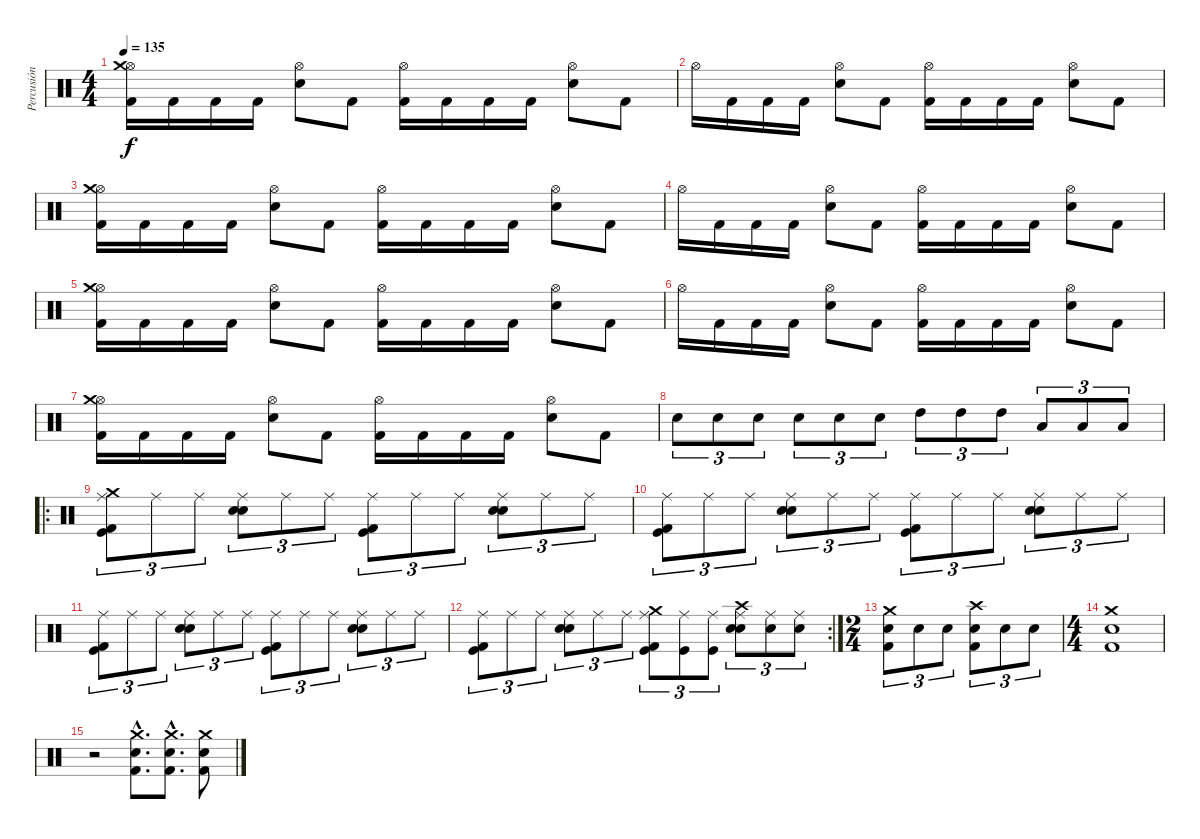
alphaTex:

\track ("Percusión" "Percusión") {instrument percussion}
\staff {score}
\articulation defaults
\ts (4 4)
\tempo 135
\clef neutral
\ks c
("Hi-Hat (open)" "Crash medium (hit)" "Kick (hit) 2").16{dy f} "Kick (hit) 2".16 "Kick (hit) 2".16 "Kick (hit) 2".16 ("Hi-Hat (open)" "Electric Snare (hit)").8 "Kick (hit) 2".8 ("Hi-Hat (open)" "Kick (hit) 2").16 "Kick (hit) 2".16 "Kick (hit) 2".16 "Kick (hit) 2".16 ("Hi-Hat (open)" "Electric Snare (hit)").8 "Kick (hit) 2".8 |
"Hi-Hat (open)".16 "Kick (hit) 2".16 "Kick (hit) 2".16 "Kick (hit) 2".16 ("Hi-Hat (open)" "Electric Snare (hit)").8 "Kick (hit) 2".8 ("Hi-Hat (open)" "Kick (hit) 2").16 "Kick (hit) 2".16 "Kick (hit) 2".16 "Kick (hit) 2".16 ("Hi-Hat (open)" "Electric Snare (hit)").8 "Kick (hit) 2".8 |
("Hi-Hat (open)" "Crash medium (hit)" "Kick (hit) 2").16 "Kick (hit) 2".16 "Kick (hit) 2".16 "Kick (hit) 2".16 ("Hi-Hat (open)" "Electric Snare (hit)").8 "Kick (hit) 2".8 ("Hi-Hat (open)" "Kick (hit) 2").16 "Kick (hit) 2".16 "Kick (hit) 2".16 "Kick (hit) 2".16 ("Hi-Hat (open)" "Electric Snare (hit)").8 "Kick (hit) 2".8 |
"Hi-Hat (open)".16 "Kick (hit) 2".16 "Kick (hit) 2".16 "Kick (hit) 2".16 ("Hi-Hat (open)" "Electric Snare (hit)").8 "Kick (hit) 2".8 ("Hi-Hat (open)" "Kick (hit) 2").16 "Kick (hit) 2".16 "Kick (hit) 2".16 "Kick (hit) 2".16 ("Hi-Hat (open)" "Electric Snare (hit)").8 "Kick (hit) 2".8 |
("Hi-Hat (open)" "Crash medium (hit)" "Kick (hit) 2").16 "Kick (hit) 2".16 "Kick (hit) 2".16 "Kick (hit) 2".16 ("Hi-Hat (open)" "Electric Snare (hit)").8 "Kick (hit) 2".8 ("Hi-Hat (open)" "Kick (hit) 2").16 "Kick (hit) 2".16 "Kick (hit) 2".16 "Kick (hit) 2".16 ("Hi-Hat (open)" "Electric Snare (hit)").8 "Kick (hit) 2".8 |
"Hi-Hat (open)".16 "Kick (hit) 2".16 "Kick (hit) 2".16 "Kick (hit) 2".16 ("Hi-Hat (open)" "Electric Snare (hit)").8 "Kick (hit) 2".8 ("Hi-Hat (open)" "Kick (hit) 2").16 "Kick (hit) 2".16 "Kick (hit) 2".16 "Kick (hit) 2".16 ("Hi-Hat (open)" "Electric Snare (hit)").8 "Kick (hit) 2".8 |
("Hi-Hat (open)" "Crash medium (hit)" "Kick (hit) 2").16 "Kick (hit) 2".16 "Kick (hit) 2".16 "Kick (hit) 2".16 ("Hi-Hat (open)" "Electric Snare (hit)").8 "Kick (hit) 2".8 ("Hi-Hat (open)" "Kick (hit) 2").16 "Kick (hit) 2".16 "Kick (hit) 2".16 "Kick (hit) 2".16 ("Hi-Hat (open)" "Electric Snare (hit)").8 "Kick (hit) 2".8 |
"Snare (hit) 2".8{tu (3 2)} "Snare (hit) 2".8{tu (3 2)} "Snare (hit) 2".8{tu (3 2)} "Electric Snare (hit)".8{tu (3 2)} "Electric Snare (hit)".8{tu (3 2)} "Electric Snare (hit)".8{tu (3 2)} "High Tom (hit)".8{tu (3 2)} "High Tom (hit)".8{tu (3 2)} "High Tom (hit)".8{tu (3 2)} "Low Tom (hit)".8{tu (3 2)} "Low Tom (hit)".8{tu (3 2)} "Low Tom (hit)".8{tu (3 2)} |
\ro
("Ride (middle)" "Crash medium (hit)" "Kick (hit)" "Kick (hit) 2").8{tu (3 2)} "Ride (middle)".8{tu (3 2)} "Ride (middle)".8{tu (3 2)} ("Ride (middle)" "Snare (hit) 2" "Electric Snare (hit)").8{tu (3 2)} "Ride (middle)".8{tu (3 2)} "Ride (middle)".8{tu (3 2)} ("Ride (middle)" "Kick (hit)" "Kick (hit) 2").8{tu (3 2)} "Ride (middle)".8{tu (3 2)} "Ride (middle)".8{tu (3 2)} ("Ride (middle)" "Snare (hit) 2" "Electric Snare (hit)").8{tu (3 2)} "Ride (middle)".8{tu (3 2)} "Ride (middle)".8{tu (3 2)} |
("Ride (middle)" "Kick (hit)" "Kick (hit) 2").8{tu (3 2)} "Ride (middle)".8{tu (3 2)} "Ride (middle)".8{tu (3 2)} ("Ride (middle)" "Snare (hit) 2" "Electric Snare (hit)").8{tu (3 2)} "Ride (middle)".8{tu (3 2)} "Ride (middle)".8{tu (3 2)} ("Ride (middle)" "Kick (hit)" "Kick (hit) 2").8{tu (3 2)} "Ride (middle)".8{tu (3 2)} "Ride (middle)".8{tu (3 2)} ("Ride (middle)" "Snare (hit) 2" "Electric Snare (hit)").8{tu (3 2)} "Ride (middle)".8{tu (3 2)} "Ride (middle)".8{tu (3 2)} |
("Ride (middle)" "Kick (hit)" "Kick (hit) 2").8{tu (3 2)} "Ride (middle)".8{tu (3 2)} "Ride (middle)".8{tu (3 2)} ("Ride (middle)" "Snare (hit) 2" "Electric Snare (hit)").8{tu (3 2)} "Ride (middle)".8{tu (3 2)} "Ride (middle)".8{tu (3 2)} ("Ride (middle)" "Kick (hit)" "Kick (hit) 2").8{tu (3 2)} "Ride (middle)".8{tu (3 2)} "Ride (middle)".8{tu (3 2)} ("Ride (middle)" "Snare (hit) 2" "Electric Snare (hit)").8{tu (3 2)} "Ride (middle)".8{tu (3 2)} "Ride (middle)".8{tu (3 2)} |
\rc 2
("Ride (middle)" "Kick (hit)" "Kick (hit) 2").8{tu (3 2)} "Ride (middle)".8{tu (3 2)} "Ride (middle)".8{tu (3 2)} ("Ride (middle)" "Snare (hit) 2" "Electric Snare (hit)").8{tu (3 2)} "Ride (middle)".8{tu (3 2)} "Ride (middle)".8{tu (3 2)} ("Crash medium (hit)" "Ride (middle)" "Kick (hit)" "Kick (hit) 2").8{tu (3 2)} ("Ride (middle)" "Kick (hit)").8{tu (3 2)} ("Ride (middle)" "Kick (hit)").8{tu (3 2)} ("Crash high (hit)" "Ride (middle)" "Snare (hit) 2" "Electric Snare (hit)").8{tu (3 2)} ("Ride (middle)" "Snare (hit) 2").8{tu (3 2)} ("Ride (middle)" "Snare (hit) 2").8{tu (3 2)} |
\ts (2 4)
("Crash medium (hit)" "Snare (hit) 2" "Kick (hit) 2").8{tu (3 2)} "Snare (hit) 2".8{tu (3 2)} "Snare (hit) 2".8{tu (3 2)} ("Crash high (hit)" "Snare (hit) 2" "Kick (hit) 2").8{tu (3 2)} "Snare (hit) 2".8{tu (3 2)} "Snare (hit) 2".8{tu (3 2)} |
\ts (4 4)
("Crash medium (hit)" "Electric Snare (hit)" "Kick (hit) 2").1 |
r.2 ("Crash medium (hit)"{hac} "Electric Snare (hit)"{hac} "Kick (hit) 2"{hac}).8{d} ("Crash medium (hit)"{hac} "Electric Snare (hit)"{hac} "Kick (hit) 2"{hac}).8{d} ("Crash medium (hit)" "Electric Snare (hit)" "Kick (hit) 2").8
